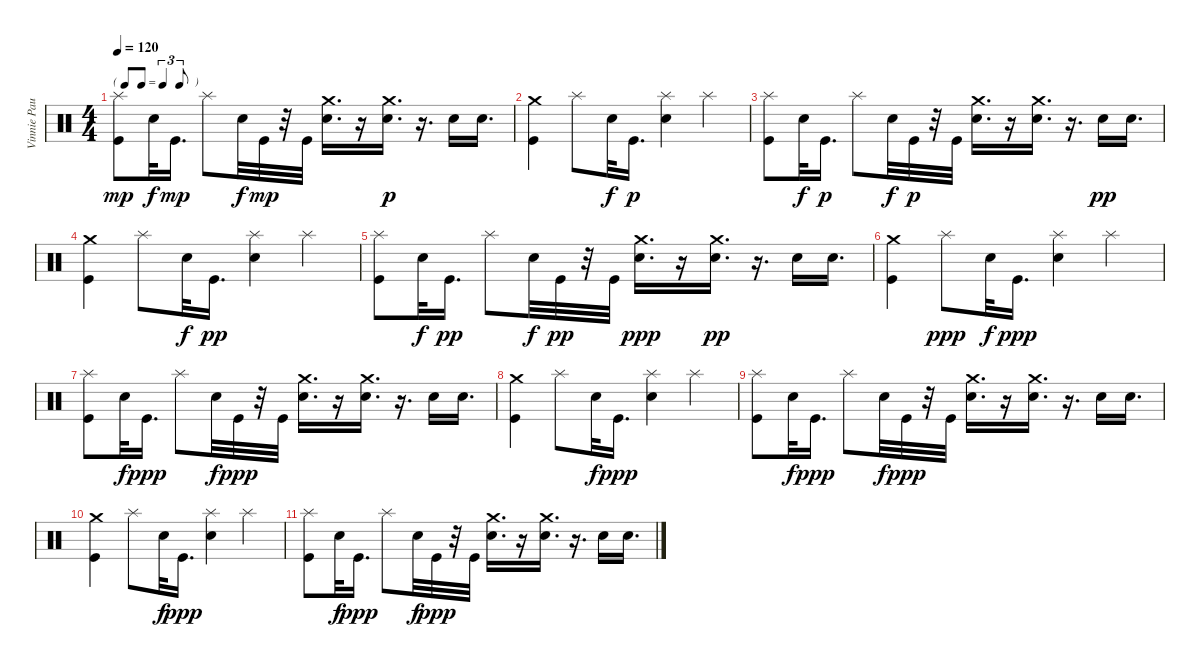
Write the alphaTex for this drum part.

\track ("Vinnie Paul" "Vinnie Pau") {instrument percussion}
\staff {score}
\articulation defaults
\ts (4 4)
\tf triplet8th
\tempo 120
\clef neutral
\ks c
("Kick (hit)" "Splash (hit)").8{dy mp} "Snare (hit)".32{dy f} "Kick (hit)".16{d dy mp} "Splash (hit)".8 "Snare (hit)".32{dy f} "Kick (hit)".32{dy mp} r.32 "Kick (hit)".32 ("Snare (hit) 2" "Crash medium (hit)").16{d} r.16 ("Crash medium (hit)" "Snare (hit) 2").16{d dy p} r.16{d} "Snare (hit) 2".16 "Snare (hit) 2".16{d} |
("Kick (hit)" "Crash medium (hit)").4 "Splash (hit)".8 "Snare (hit)".32{dy f} "Kick (hit)".16{d dy p} ("Snare (hit) 2" "Splash (hit)").4 "Splash (hit)".4 |
("Kick (hit)" "Splash (hit)").8 "Snare (hit)".32{dy f} "Kick (hit)".16{d dy p} "Splash (hit)".8 "Snare (hit)".32{dy f} "Kick (hit)".32{dy p} r.32 "Kick (hit)".32 ("Snare (hit) 2" "Crash medium (hit)").16{d} r.16 ("Crash medium (hit)" "Snare (hit) 2").16{d} r.16{d} "Snare (hit) 2".16{dy pp} "Snare (hit) 2".16{d} |
("Kick (hit)" "Crash medium (hit)").4 "Splash (hit)".8 "Snare (hit)".32{dy f} "Kick (hit)".16{d dy pp} ("Snare (hit) 2" "Splash (hit)").4 "Splash (hit)".4 |
("Kick (hit)" "Splash (hit)").8{volume 4} "Snare (hit)".32{dy f} "Kick (hit)".16{d dy pp} "Splash (hit)".8 "Snare (hit)".32{dy f} "Kick (hit)".32{dy pp} r.32 "Kick (hit)".32 ("Snare (hit) 2" "Crash medium (hit)").16{d dy ppp} r.16 ("Crash medium (hit)" "Snare (hit) 2").16{d dy pp} r.16{d} "Snare (hit) 2".16 "Snare (hit) 2".16{d} |
("Kick (hit)" "Crash medium (hit)").4{volume 4} "Splash (hit)".8{dy ppp} "Snare (hit)".32{dy f} "Kick (hit)".16{d dy ppp} ("Snare (hit) 2" "Splash (hit)").4 "Splash (hit)".4 |
("Kick (hit)" "Splash (hit)").8{volume 4} "Snare (hit)".32{dy f} "Kick (hit)".16{d dy ppp} "Splash (hit)".8 "Snare (hit)".32{dy f} "Kick (hit)".32{dy ppp} r.32 "Kick (hit)".32 ("Snare (hit) 2" "Crash medium (hit)").16{d} r.16 ("Crash medium (hit)" "Snare (hit) 2").16{d} r.16{d} "Snare (hit) 2".16 "Snare (hit) 2".16{d} |
("Kick (hit)" "Crash medium (hit)").4 "Splash (hit)".8{volume 1} "Snare (hit)".32{dy f} "Kick (hit)".16{d dy ppp} ("Snare (hit) 2" "Splash (hit)").4 "Splash (hit)".4 |
("Kick (hit)" "Splash (hit)").8 "Snare (hit)".32{dy f} "Kick (hit)".16{d dy ppp} "Splash (hit)".8 "Snare (hit)".32{dy f} "Kick (hit)".32{dy ppp} r.32 "Kick (hit)".32 ("Snare (hit) 2" "Crash medium (hit)").16{d} r.16 ("Crash medium (hit)" "Snare (hit) 2").16{d} r.16{d} "Snare (hit) 2".16 "Snare (hit) 2".16{d} |
("Kick (hit)" "Crash medium (hit)").4 "Splash (hit)".8 "Snare (hit)".32{dy f} "Kick (hit)".16{d dy ppp} ("Snare (hit) 2" "Splash (hit)").4 "Splash (hit)".4 |
("Kick (hit)" "Splash (hit)").8 "Snare (hit)".32{dy f} "Kick (hit)".16{d dy ppp} "Splash (hit)".8 "Snare (hit)".32{dy f} "Kick (hit)".32{dy ppp} r.32 "Kick (hit)".32 ("Snare (hit) 2" "Crash medium (hit)").16{d} r.16 ("Crash medium (hit)" "Snare (hit) 2").16{d} r.16{d} "Snare (hit) 2".16 "Snare (hit) 2".16{d}
